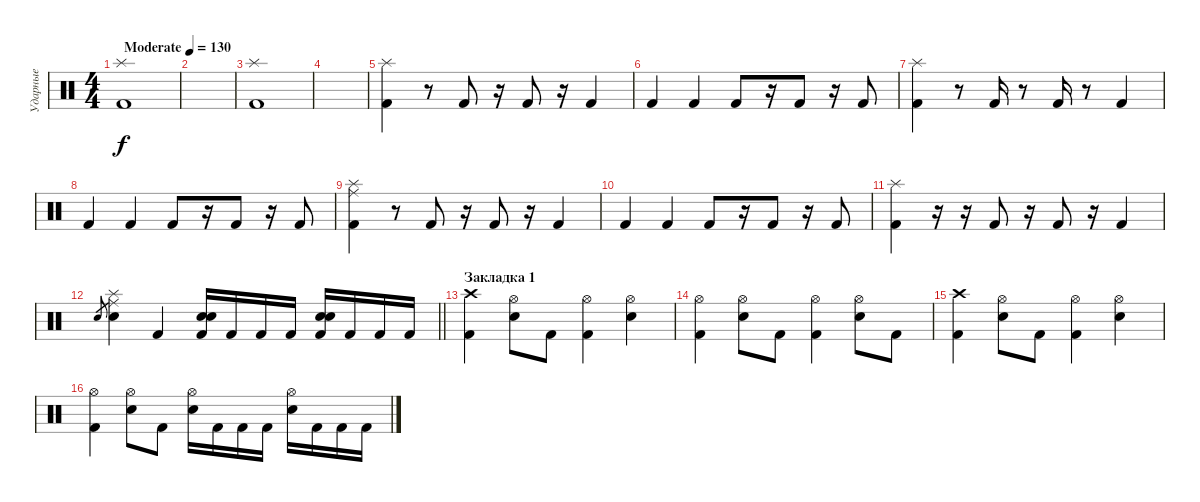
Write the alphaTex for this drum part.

\track ("Ударные" "Ударные") {instrument percussion}
\staff {score}
\articulation defaults
\ts (4 4)
\tempo (130 "Moderate")
\clef neutral
\ks c
("Splash (hit)" "Kick (hit) 2").1{dy f} |
|
("Splash (hit)" "Kick (hit) 2").1 |
|
("Splash (hit)" "Kick (hit) 2").4 r.8 "Kick (hit) 2".8 r.16 "Kick (hit) 2".8 r.16 "Kick (hit) 2".4 |
"Kick (hit) 2".4 "Kick (hit) 2".4 "Kick (hit) 2".8 r.16 "Kick (hit) 2".8 r.16 "Kick (hit) 2".8 |
("Splash (hit)" "Kick (hit) 2").4 r.8 "Kick (hit) 2".16 r.8 "Kick (hit) 2".16 r.8 "Kick (hit) 2".4 |
"Kick (hit) 2".4 "Kick (hit) 2".4 "Kick (hit) 2".8 r.16 "Kick (hit) 2".8 r.16 "Kick (hit) 2".8 |
("Splash (hit)" "Ride (middle)" "Kick (hit) 2").4 r.8 "Kick (hit) 2".8 r.16 "Kick (hit) 2".8 r.16 "Kick (hit) 2".4 |
"Kick (hit) 2".4 "Kick (hit) 2".4 "Kick (hit) 2".8 r.16 "Kick (hit) 2".8 r.16 "Kick (hit) 2".8 |
("Splash (hit)" "Kick (hit) 2").4 r.16 r.16 "Kick (hit) 2".8 r.16 "Kick (hit) 2".8 r.16 "Kick (hit) 2".4 |
\barLineRight lightlight "Electric Snare (hit)".8{gr}
("Splash (hit)" "Ride (middle)" "Electric Snare (hit)").4 "Kick (hit) 2".4 ("Electric Snare (hit)" "Electric Snare (hit)" "Kick (hit) 2").16 "Kick (hit) 2".16 "Kick (hit) 2".16 "Kick (hit) 2".16 ("Electric Snare (hit)" "Electric Snare (hit)" "Kick (hit) 2").16 "Kick (hit) 2".16 "Kick (hit) 2".16 "Kick (hit) 2".16 |
\section ("" "Закладка 1")
("Crash high (hit)" "Kick (hit) 2").4 ("Hi-Hat (open)" "Electric Snare (hit)").8 "Kick (hit) 2".8 ("Hi-Hat (open)" "Kick (hit) 2").4 ("Hi-Hat (open)" "Electric Snare (hit)").4 |
("Hi-Hat (open)" "Kick (hit) 2").4 ("Hi-Hat (open)" "Electric Snare (hit)").8 "Kick (hit) 2".8 ("Hi-Hat (open)" "Kick (hit) 2").4 ("Hi-Hat (open)" "Electric Snare (hit)").8 "Kick (hit) 2".8 |
("Crash high (hit)" "Kick (hit) 2").4 ("Hi-Hat (open)" "Electric Snare (hit)").8 "Kick (hit) 2".8 ("Hi-Hat (open)" "Kick (hit) 2").4 ("Hi-Hat (open)" "Electric Snare (hit)").4 |
("Hi-Hat (open)" "Kick (hit) 2").4 ("Hi-Hat (open)" "Electric Snare (hit)").8 "Kick (hit) 2".8 ("Hi-Hat (open)" "Electric Snare (hit)").16 "Kick (hit) 2".16 "Kick (hit) 2".16 "Kick (hit) 2".16 ("Hi-Hat (open)" "Electric Snare (hit)").16 "Kick (hit) 2".16 "Kick (hit) 2".16 "Kick (hit) 2".16
